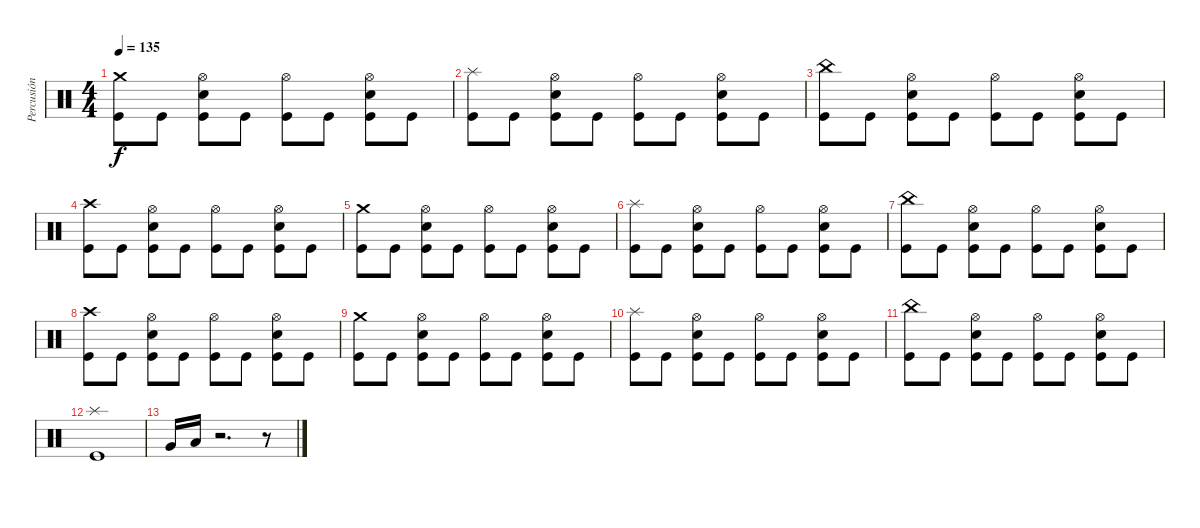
\track ("Percusión" "Percusión") {instrument percussion}
\staff {score}
\articulation defaults
\ts (4 4)
\tempo 135
\clef neutral
\ks c
("Kick (hit)" "Crash medium (hit)").8{dy f} "Kick (hit)".8 ("Kick (hit)" "Electric Snare (hit)" "Hi-Hat (open)").8 "Kick (hit)".8 ("Kick (hit)" "Hi-Hat (open)").8 "Kick (hit)".8 ("Kick (hit)" "Electric Snare (hit)" "Hi-Hat (open)").8 "Kick (hit)".8 |
("Kick (hit)" "Splash (hit)").8 "Kick (hit)".8 ("Kick (hit)" "Electric Snare (hit)" "Hi-Hat (open)").8 "Kick (hit)".8 ("Kick (hit)" "Hi-Hat (open)").8 "Kick (hit)".8 ("Kick (hit)" "Electric Snare (hit)" "Hi-Hat (open)").8 "Kick (hit)".8 |
("Kick (hit)" "China (hit)").8 "Kick (hit)".8 ("Kick (hit)" "Electric Snare (hit)" "Hi-Hat (open)").8 "Kick (hit)".8 ("Kick (hit)" "Hi-Hat (open)").8 "Kick (hit)".8 ("Kick (hit)" "Electric Snare (hit)" "Hi-Hat (open)").8 "Kick (hit)".8 |
("Kick (hit)" "Crash high (hit)").8 "Kick (hit)".8 ("Kick (hit)" "Electric Snare (hit)" "Hi-Hat (open)").8 "Kick (hit)".8 ("Kick (hit)" "Hi-Hat (open)").8 "Kick (hit)".8 ("Kick (hit)" "Electric Snare (hit)" "Hi-Hat (open)").8 "Kick (hit)".8 |
("Kick (hit)" "Crash medium (hit)").8 "Kick (hit)".8 ("Kick (hit)" "Electric Snare (hit)" "Hi-Hat (open)").8 "Kick (hit)".8 ("Kick (hit)" "Hi-Hat (open)").8 "Kick (hit)".8 ("Kick (hit)" "Electric Snare (hit)" "Hi-Hat (open)").8 "Kick (hit)".8 |
("Kick (hit)" "Splash (hit)").8 "Kick (hit)".8 ("Kick (hit)" "Electric Snare (hit)" "Hi-Hat (open)").8 "Kick (hit)".8 ("Kick (hit)" "Hi-Hat (open)").8 "Kick (hit)".8 ("Kick (hit)" "Electric Snare (hit)" "Hi-Hat (open)").8 "Kick (hit)".8 |
("Kick (hit)" "China (hit)").8 "Kick (hit)".8 ("Kick (hit)" "Electric Snare (hit)" "Hi-Hat (open)").8 "Kick (hit)".8 ("Kick (hit)" "Hi-Hat (open)").8 "Kick (hit)".8 ("Kick (hit)" "Electric Snare (hit)" "Hi-Hat (open)").8 "Kick (hit)".8 |
("Kick (hit)" "Crash high (hit)").8 "Kick (hit)".8 ("Kick (hit)" "Electric Snare (hit)" "Hi-Hat (open)").8 "Kick (hit)".8 ("Kick (hit)" "Hi-Hat (open)").8 "Kick (hit)".8 ("Kick (hit)" "Electric Snare (hit)" "Hi-Hat (open)").8 "Kick (hit)".8 |
("Kick (hit)" "Crash medium (hit)").8 "Kick (hit)".8 ("Kick (hit)" "Electric Snare (hit)" "Hi-Hat (open)").8 "Kick (hit)".8 ("Kick (hit)" "Hi-Hat (open)").8 "Kick (hit)".8 ("Kick (hit)" "Electric Snare (hit)" "Hi-Hat (open)").8 "Kick (hit)".8 |
("Kick (hit)" "Splash (hit)").8 "Kick (hit)".8 ("Kick (hit)" "Electric Snare (hit)" "Hi-Hat (open)").8 "Kick (hit)".8 ("Kick (hit)" "Hi-Hat (open)").8 "Kick (hit)".8 ("Kick (hit)" "Electric Snare (hit)" "Hi-Hat (open)").8 "Kick (hit)".8 |
("Kick (hit)" "China (hit)").8 "Kick (hit)".8 ("Kick (hit)" "Electric Snare (hit)" "Hi-Hat (open)").8 "Kick (hit)".8 ("Kick (hit)" "Hi-Hat (open)").8 "Kick (hit)".8 ("Kick (hit)" "Electric Snare (hit)" "Hi-Hat (open)").8 "Kick (hit)".8 |
("Kick (hit)" "Splash (hit)").1 |
"Very Low Tom (hit)".16 "Low Floor Tom (hit)".16 r.2{d} r.8
